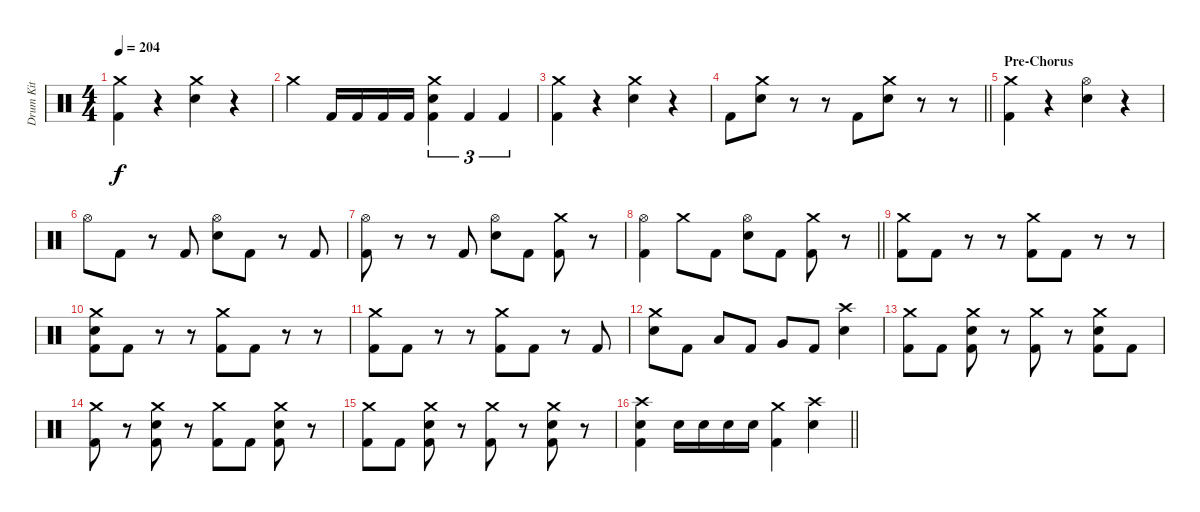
\track ("Drum Kit" "Drum Kit") {instrument percussion}
\staff {score}
\articulation defaults
\ts (4 4)
\tempo 204
\clef neutral
\ks c
("Crash medium (hit)" "Kick (hit) 2").4{dy f} r.4 ("Crash medium (hit)" "Snare (hit) 2").4 r.4 |
"Crash medium (hit)".4 "Kick (hit) 2".16 "Kick (hit) 2".16 "Kick (hit) 2".16 "Kick (hit) 2".16 ("Crash medium (hit)" "Snare (hit) 2" "Kick (hit) 2").4{tu (3 2)} "Kick (hit) 2".4{tu (3 2)} "Kick (hit) 2".4{tu (3 2)} |
("Crash medium (hit)" "Kick (hit) 2").4 r.4 ("Crash medium (hit)" "Snare (hit) 2").4 r.4 |
\barLineRight lightlight "Kick (hit) 2".8
("Crash medium (hit)" "Snare (hit) 2").8 r.8 r.8 "Kick (hit) 2".8 ("Crash medium (hit)" "Snare (hit) 2").8 r.8 r.8 |
\section ("" "Pre-Chorus")
("Crash medium (hit)" "Kick (hit) 2").4 r.4 ("Hi-Hat (open)" "Snare (hit) 2").4 r.4 |
"Hi-Hat (open)".8 "Kick (hit) 2".8 r.8 "Kick (hit) 2".8 ("Hi-Hat (open)" "Snare (hit) 2").8 "Kick (hit) 2".8 r.8 "Kick (hit) 2".8 |
("Hi-Hat (open)" "Kick (hit) 2").8 r.8 r.8 "Kick (hit) 2".8 ("Hi-Hat (open)" "Snare (hit) 2").8 "Kick (hit) 2".8 ("Crash medium (hit)" "Kick (hit) 2").8 r.8 |
\barLineRight lightlight
("Hi-Hat (open)" "Kick (hit) 2").4 "Crash medium (hit)".8 "Kick (hit) 2".8 ("Hi-Hat (open)" "Snare (hit) 2").8 "Kick (hit) 2".8 ("Crash medium (hit)" "Kick (hit) 2").8 r.8 |
\section ("" "")
("Crash medium (hit)" "Kick (hit) 2").8 "Kick (hit) 2".8 r.8 r.8 ("Crash medium (hit)" "Kick (hit) 2").8 "Kick (hit) 2".8 r.8 r.8 |
("Crash medium (hit)" "Snare (hit) 2" "Kick (hit) 2").8 "Kick (hit) 2".8 r.8 r.8 ("Crash medium (hit)" "Kick (hit) 2").8 "Kick (hit) 2".8 r.8 r.8 |
("Crash medium (hit)" "Kick (hit) 2").8 "Kick (hit) 2".8 r.8 r.8 ("Crash medium (hit)" "Kick (hit) 2").8 "Kick (hit) 2".8 r.8 "Kick (hit) 2".8 |
("Crash medium (hit)" "Snare (hit) 2").8 "Kick (hit) 2".8 "Low Tom (hit)".8 "Kick (hit) 2".8 "Very Low Tom (hit)".8 "Kick (hit) 2".8 ("Crash high (hit)" "Snare (hit) 2").4 |
("Crash medium (hit)" "Kick (hit) 2").8 "Kick (hit) 2".8 ("Crash medium (hit)" "Snare (hit) 2" "Kick (hit) 2").8 r.8 ("Crash medium (hit)" "Kick (hit) 2").8 r.8 ("Crash medium (hit)" "Snare (hit) 2" "Kick (hit) 2").8 "Kick (hit) 2".8 |
("Crash medium (hit)" "Kick (hit) 2").8 r.8 ("Crash medium (hit)" "Snare (hit) 2" "Kick (hit) 2").8 r.8 ("Crash medium (hit)" "Kick (hit) 2").8 "Kick (hit) 2".8 ("Crash medium (hit)" "Snare (hit) 2" "Kick (hit) 2").8 r.8 |
("Crash medium (hit)" "Kick (hit) 2").8 "Kick (hit) 2".8 ("Crash medium (hit)" "Snare (hit) 2" "Kick (hit) 2").8 r.8 ("Crash medium (hit)" "Kick (hit) 2").8 r.8 ("Crash medium (hit)" "Snare (hit) 2" "Kick (hit) 2").8 r.8 |
\barLineRight lightlight
("Crash high (hit)" "Snare (hit) 2" "Kick (hit) 2").4 "Snare (hit) 2".16 "Snare (hit) 2".16 "Snare (hit) 2".16 "Snare (hit) 2".16 ("Crash medium (hit)" "Kick (hit) 2").4 ("Crash high (hit)" "Snare (hit) 2").4
